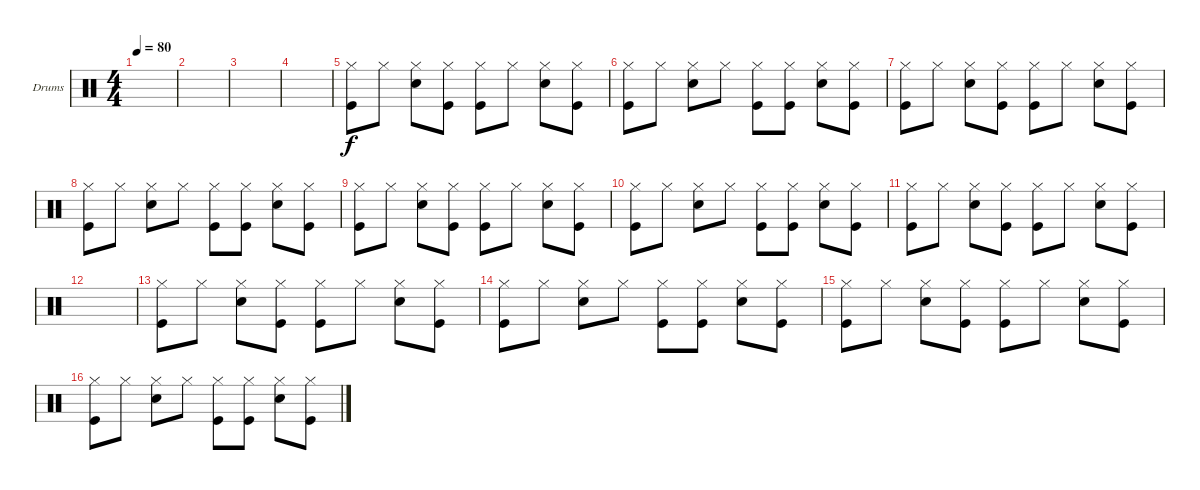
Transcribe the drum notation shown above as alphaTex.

\defaultSystemsLayout 4
\bracketExtendMode groupsimilarinstruments
\firstSystemTrackNameOrientation horizontal
\otherSystemsTrackNameOrientation horizontal
\track ("Drumkit" "Drums") {instrument percussion}
\staff {score}
\articulation defaults
\ts (4 4)
\tempo 80
\clef neutral
\ks c
|
|
|
|
("Hi-Hat (closed)" "Kick (hit)").8 "Hi-Hat (closed)".8 ("Hi-Hat (closed)" "Snare (hit) 2").8 ("Hi-Hat (closed)" "Kick (hit)").8 ("Hi-Hat (closed)" "Kick (hit)").8 "Hi-Hat (closed)".8 ("Hi-Hat (closed)" "Snare (hit) 2").8 ("Hi-Hat (closed)" "Kick (hit)").8 |
("Hi-Hat (closed)" "Kick (hit)").8 "Hi-Hat (closed)".8 ("Hi-Hat (closed)" "Snare (hit) 2").8 "Hi-Hat (closed)".8 ("Hi-Hat (closed)" "Kick (hit)").8 ("Hi-Hat (closed)" "Kick (hit)").8 ("Hi-Hat (closed)" "Snare (hit) 2").8 ("Hi-Hat (closed)" "Kick (hit)").8 |
("Hi-Hat (closed)" "Kick (hit)").8 "Hi-Hat (closed)".8 ("Hi-Hat (closed)" "Snare (hit) 2").8 ("Hi-Hat (closed)" "Kick (hit)").8 ("Hi-Hat (closed)" "Kick (hit)").8 "Hi-Hat (closed)".8 ("Hi-Hat (closed)" "Snare (hit) 2").8 ("Hi-Hat (closed)" "Kick (hit)").8 |
("Hi-Hat (closed)" "Kick (hit)").8 "Hi-Hat (closed)".8 ("Hi-Hat (closed)" "Snare (hit) 2").8 "Hi-Hat (closed)".8 ("Hi-Hat (closed)" "Kick (hit)").8 ("Hi-Hat (closed)" "Kick (hit)").8 ("Hi-Hat (closed)" "Snare (hit) 2").8 ("Hi-Hat (closed)" "Kick (hit)").8 |
("Hi-Hat (closed)" "Kick (hit)").8 "Hi-Hat (closed)".8 ("Hi-Hat (closed)" "Snare (hit) 2").8 ("Hi-Hat (closed)" "Kick (hit)").8 ("Hi-Hat (closed)" "Kick (hit)").8 "Hi-Hat (closed)".8 ("Hi-Hat (closed)" "Snare (hit) 2").8 ("Hi-Hat (closed)" "Kick (hit)").8 |
("Hi-Hat (closed)" "Kick (hit)").8 "Hi-Hat (closed)".8 ("Hi-Hat (closed)" "Snare (hit) 2").8 "Hi-Hat (closed)".8 ("Hi-Hat (closed)" "Kick (hit)").8 ("Hi-Hat (closed)" "Kick (hit)").8 ("Hi-Hat (closed)" "Snare (hit) 2").8 ("Hi-Hat (closed)" "Kick (hit)").8 |
("Hi-Hat (closed)" "Kick (hit)").8 "Hi-Hat (closed)".8 ("Hi-Hat (closed)" "Snare (hit) 2").8 ("Hi-Hat (closed)" "Kick (hit)").8 ("Hi-Hat (closed)" "Kick (hit)").8 "Hi-Hat (closed)".8 ("Hi-Hat (closed)" "Snare (hit) 2").8 ("Hi-Hat (closed)" "Kick (hit)").8 |
|
("Hi-Hat (closed)" "Kick (hit)").8 "Hi-Hat (closed)".8 ("Hi-Hat (closed)" "Snare (hit) 2").8 ("Hi-Hat (closed)" "Kick (hit)").8 ("Hi-Hat (closed)" "Kick (hit)").8 "Hi-Hat (closed)".8 ("Hi-Hat (closed)" "Snare (hit) 2").8 ("Hi-Hat (closed)" "Kick (hit)").8 |
("Hi-Hat (closed)" "Kick (hit)").8 "Hi-Hat (closed)".8 ("Hi-Hat (closed)" "Snare (hit) 2").8 "Hi-Hat (closed)".8 ("Hi-Hat (closed)" "Kick (hit)").8 ("Hi-Hat (closed)" "Kick (hit)").8 ("Hi-Hat (closed)" "Snare (hit) 2").8 ("Hi-Hat (closed)" "Kick (hit)").8 |
("Hi-Hat (closed)" "Kick (hit)").8 "Hi-Hat (closed)".8 ("Hi-Hat (closed)" "Snare (hit) 2").8 ("Hi-Hat (closed)" "Kick (hit)").8 ("Hi-Hat (closed)" "Kick (hit)").8 "Hi-Hat (closed)".8 ("Hi-Hat (closed)" "Snare (hit) 2").8 ("Hi-Hat (closed)" "Kick (hit)").8 |
("Hi-Hat (closed)" "Kick (hit)").8 "Hi-Hat (closed)".8 ("Hi-Hat (closed)" "Snare (hit) 2").8 "Hi-Hat (closed)".8 ("Hi-Hat (closed)" "Kick (hit)").8 ("Hi-Hat (closed)" "Kick (hit)").8 ("Hi-Hat (closed)" "Snare (hit) 2").8 ("Hi-Hat (closed)" "Kick (hit)").8
